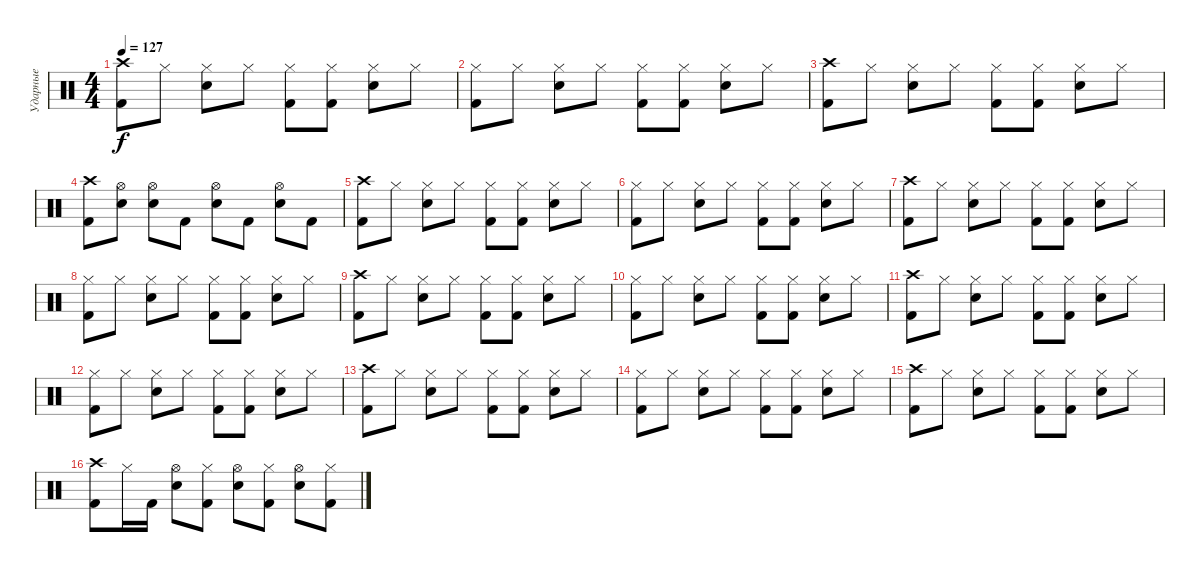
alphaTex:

\track ("Ударные" "Ударные") {instrument percussion}
\staff {score}
\articulation defaults
\ts (4 4)
\tempo 127
\clef neutral
\ks c
("Kick (hit) 2" "Crash high (hit)").8{dy f} "Hi-Hat (closed)".8 ("Electric Snare (hit)" "Hi-Hat (closed)").8 "Hi-Hat (closed)".8 ("Kick (hit) 2" "Hi-Hat (closed)").8 ("Kick (hit) 2" "Hi-Hat (closed)").8 ("Electric Snare (hit)" "Hi-Hat (closed)").8 "Hi-Hat (closed)".8 |
("Kick (hit) 2" "Hi-Hat (closed)").8 "Hi-Hat (closed)".8 ("Electric Snare (hit)" "Hi-Hat (closed)").8 "Hi-Hat (closed)".8 ("Kick (hit) 2" "Hi-Hat (closed)").8 ("Kick (hit) 2" "Hi-Hat (closed)").8 ("Electric Snare (hit)" "Hi-Hat (closed)").8 "Hi-Hat (closed)".8 |
("Kick (hit) 2" "Crash high (hit)").8 "Hi-Hat (closed)".8 ("Electric Snare (hit)" "Hi-Hat (closed)").8 "Hi-Hat (closed)".8 ("Kick (hit) 2" "Hi-Hat (closed)").8 ("Kick (hit) 2" "Hi-Hat (closed)").8 ("Electric Snare (hit)" "Hi-Hat (closed)").8 "Hi-Hat (closed)".8 |
("Kick (hit) 2" "Crash high (hit)").8 ("Electric Snare (hit)" "Hi-Hat (open)").8 ("Electric Snare (hit)" "Hi-Hat (open)").8 "Kick (hit) 2".8 ("Electric Snare (hit)" "Hi-Hat (open)").8 "Kick (hit) 2".8 ("Electric Snare (hit)" "Hi-Hat (open)").8 "Kick (hit) 2".8 |
("Kick (hit) 2" "Crash high (hit)").8 "Hi-Hat (closed)".8 ("Electric Snare (hit)" "Hi-Hat (closed)").8 "Hi-Hat (closed)".8 ("Kick (hit) 2" "Hi-Hat (closed)").8 ("Kick (hit) 2" "Hi-Hat (closed)").8 ("Electric Snare (hit)" "Hi-Hat (closed)").8 "Hi-Hat (closed)".8 |
("Kick (hit) 2" "Hi-Hat (closed)").8 "Hi-Hat (closed)".8 ("Electric Snare (hit)" "Hi-Hat (closed)").8 "Hi-Hat (closed)".8 ("Kick (hit) 2" "Hi-Hat (closed)").8 ("Kick (hit) 2" "Hi-Hat (closed)").8 ("Electric Snare (hit)" "Hi-Hat (closed)").8 "Hi-Hat (closed)".8 |
("Kick (hit) 2" "Crash high (hit)").8 "Hi-Hat (closed)".8 ("Electric Snare (hit)" "Hi-Hat (closed)").8 "Hi-Hat (closed)".8 ("Kick (hit) 2" "Hi-Hat (closed)").8 ("Kick (hit) 2" "Hi-Hat (closed)").8 ("Electric Snare (hit)" "Hi-Hat (closed)").8 "Hi-Hat (closed)".8 |
("Kick (hit) 2" "Hi-Hat (closed)").8 "Hi-Hat (closed)".8 ("Electric Snare (hit)" "Hi-Hat (closed)").8 "Hi-Hat (closed)".8 ("Kick (hit) 2" "Hi-Hat (closed)").8 ("Kick (hit) 2" "Hi-Hat (closed)").8 ("Electric Snare (hit)" "Hi-Hat (closed)").8 "Hi-Hat (closed)".8 |
("Kick (hit) 2" "Crash high (hit)").8 "Hi-Hat (closed)".8 ("Electric Snare (hit)" "Hi-Hat (closed)").8 "Hi-Hat (closed)".8 ("Kick (hit) 2" "Hi-Hat (closed)").8 ("Kick (hit) 2" "Hi-Hat (closed)").8 ("Electric Snare (hit)" "Hi-Hat (closed)").8 "Hi-Hat (closed)".8 |
("Kick (hit) 2" "Hi-Hat (closed)").8 "Hi-Hat (closed)".8 ("Electric Snare (hit)" "Hi-Hat (closed)").8 "Hi-Hat (closed)".8 ("Kick (hit) 2" "Hi-Hat (closed)").8 ("Kick (hit) 2" "Hi-Hat (closed)").8 ("Electric Snare (hit)" "Hi-Hat (closed)").8 "Hi-Hat (closed)".8 |
("Kick (hit) 2" "Crash high (hit)").8 "Hi-Hat (closed)".8 ("Electric Snare (hit)" "Hi-Hat (closed)").8 "Hi-Hat (closed)".8 ("Kick (hit) 2" "Hi-Hat (closed)").8 ("Kick (hit) 2" "Hi-Hat (closed)").8 ("Electric Snare (hit)" "Hi-Hat (closed)").8 "Hi-Hat (closed)".8 |
("Kick (hit) 2" "Hi-Hat (closed)").8 "Hi-Hat (closed)".8 ("Electric Snare (hit)" "Hi-Hat (closed)").8 "Hi-Hat (closed)".8 ("Kick (hit) 2" "Hi-Hat (closed)").8 ("Kick (hit) 2" "Hi-Hat (closed)").8 ("Electric Snare (hit)" "Hi-Hat (closed)").8 "Hi-Hat (closed)".8 |
("Kick (hit) 2" "Crash high (hit)").8 "Hi-Hat (closed)".8 ("Electric Snare (hit)" "Hi-Hat (closed)").8 "Hi-Hat (closed)".8 ("Kick (hit) 2" "Hi-Hat (closed)").8 ("Kick (hit) 2" "Hi-Hat (closed)").8 ("Electric Snare (hit)" "Hi-Hat (closed)").8 "Hi-Hat (closed)".8 |
("Kick (hit) 2" "Hi-Hat (closed)").8 "Hi-Hat (closed)".8 ("Electric Snare (hit)" "Hi-Hat (closed)").8 "Hi-Hat (closed)".8 ("Kick (hit) 2" "Hi-Hat (closed)").8 ("Kick (hit) 2" "Hi-Hat (closed)").8 ("Electric Snare (hit)" "Hi-Hat (closed)").8 "Hi-Hat (closed)".8 |
("Kick (hit) 2" "Crash high (hit)").8 "Hi-Hat (closed)".8 ("Electric Snare (hit)" "Hi-Hat (closed)").8 "Hi-Hat (closed)".8 ("Kick (hit) 2" "Hi-Hat (closed)").8 ("Kick (hit) 2" "Hi-Hat (closed)").8 ("Electric Snare (hit)" "Hi-Hat (closed)").8 "Hi-Hat (closed)".8 |
("Kick (hit) 2" "Crash high (hit)").8 "Hi-Hat (closed)".16 "Kick (hit) 2".16 ("Electric Snare (hit)" "Hi-Hat (open)").8 ("Kick (hit) 2" "Hi-Hat (closed)").8 ("Electric Snare (hit)" "Hi-Hat (open)").8 ("Kick (hit) 2" "Hi-Hat (closed)").8 ("Electric Snare (hit)" "Hi-Hat (open)").8 ("Kick (hit) 2" "Hi-Hat (closed)").8
